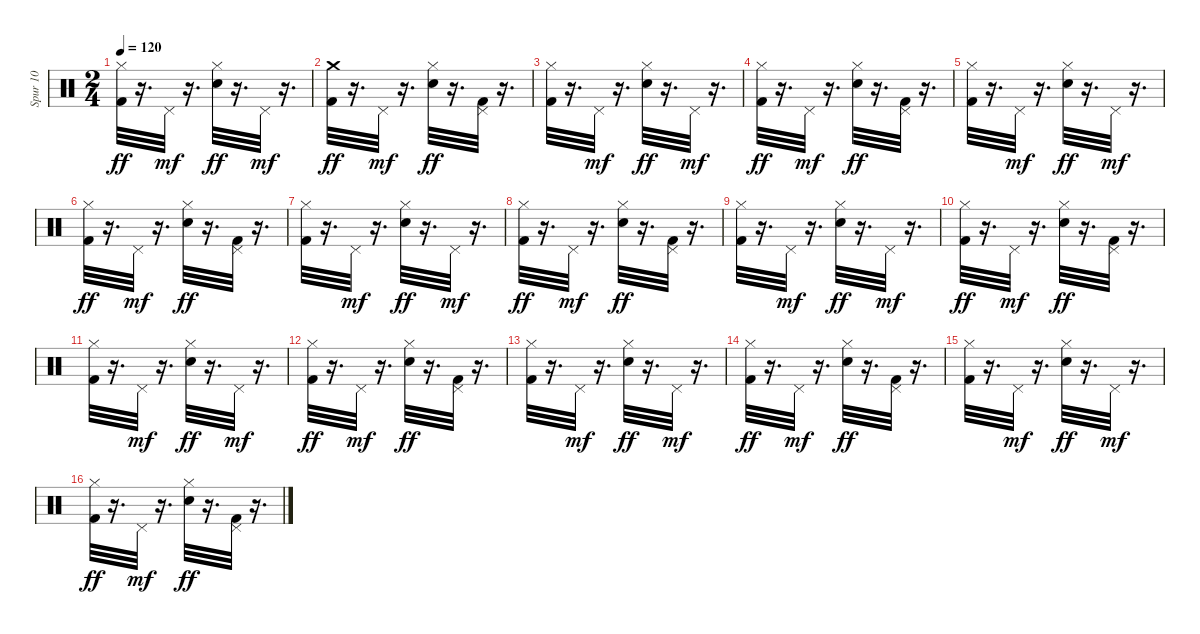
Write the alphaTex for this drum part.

\track ("Spur 10" "Spur 10") {instrument percussion}
\staff {score}
\articulation defaults
\ts (2 4)
\tempo 120
\clef neutral
\ks c
("Hi-Hat (closed)" "Kick (hit) 2").32{dy ff} r.16{d} "Pedal Hi-Hat (hit)".32{dy mf} r.16{d} ("Hi-Hat (closed)" "Snare (hit) 2").32{dy ff} r.16{d} "Pedal Hi-Hat (hit)".32{dy mf} r.16{d} |
("Crash medium (hit)" "Kick (hit) 2").32{dy ff} r.16{d} "Pedal Hi-Hat (hit)".32{dy mf} r.16{d} ("Hi-Hat (closed)" "Snare (hit) 2").32{dy ff} r.16{d} ("Pedal Hi-Hat (hit)" "Kick (hit) 2").32 r.16{d} |
("Hi-Hat (closed)" "Kick (hit) 2").32 r.16{d} "Pedal Hi-Hat (hit)".32{dy mf} r.16{d} ("Hi-Hat (closed)" "Snare (hit) 2").32{dy ff} r.16{d} "Pedal Hi-Hat (hit)".32{dy mf} r.16{d} |
("Hi-Hat (closed)" "Kick (hit) 2").32{dy ff} r.16{d} "Pedal Hi-Hat (hit)".32{dy mf} r.16{d} ("Hi-Hat (closed)" "Snare (hit) 2").32{dy ff} r.16{d} ("Pedal Hi-Hat (hit)" "Kick (hit) 2").32 r.16{d} |
("Hi-Hat (closed)" "Kick (hit) 2").32 r.16{d} "Pedal Hi-Hat (hit)".32{dy mf} r.16{d} ("Hi-Hat (closed)" "Snare (hit) 2").32{dy ff} r.16{d} "Pedal Hi-Hat (hit)".32{dy mf} r.16{d} |
("Hi-Hat (closed)" "Kick (hit) 2").32{dy ff} r.16{d} "Pedal Hi-Hat (hit)".32{dy mf} r.16{d} ("Hi-Hat (closed)" "Snare (hit) 2").32{dy ff} r.16{d} ("Pedal Hi-Hat (hit)" "Kick (hit) 2").32 r.16{d} |
("Hi-Hat (closed)" "Kick (hit) 2").32 r.16{d} "Pedal Hi-Hat (hit)".32{dy mf} r.16{d} ("Hi-Hat (closed)" "Snare (hit) 2").32{dy ff} r.16{d} "Pedal Hi-Hat (hit)".32{dy mf} r.16{d} |
("Hi-Hat (closed)" "Kick (hit) 2").32{dy ff} r.16{d} "Pedal Hi-Hat (hit)".32{dy mf} r.16{d} ("Hi-Hat (closed)" "Snare (hit) 2").32{dy ff} r.16{d} ("Pedal Hi-Hat (hit)" "Kick (hit) 2").32 r.16{d} |
("Hi-Hat (closed)" "Kick (hit) 2").32 r.16{d} "Pedal Hi-Hat (hit)".32{dy mf} r.16{d} ("Hi-Hat (closed)" "Snare (hit) 2").32{dy ff} r.16{d} "Pedal Hi-Hat (hit)".32{dy mf} r.16{d} |
("Hi-Hat (closed)" "Kick (hit) 2").32{dy ff} r.16{d} "Pedal Hi-Hat (hit)".32{dy mf} r.16{d} ("Hi-Hat (closed)" "Snare (hit) 2").32{dy ff} r.16{d} ("Pedal Hi-Hat (hit)" "Kick (hit) 2").32 r.16{d} |
("Hi-Hat (closed)" "Kick (hit) 2").32 r.16{d} "Pedal Hi-Hat (hit)".32{dy mf} r.16{d} ("Hi-Hat (closed)" "Snare (hit) 2").32{dy ff} r.16{d} "Pedal Hi-Hat (hit)".32{dy mf} r.16{d} |
("Hi-Hat (closed)" "Kick (hit) 2").32{dy ff} r.16{d} "Pedal Hi-Hat (hit)".32{dy mf} r.16{d} ("Hi-Hat (closed)" "Snare (hit) 2").32{dy ff} r.16{d} ("Pedal Hi-Hat (hit)" "Kick (hit) 2").32 r.16{d} |
("Hi-Hat (closed)" "Kick (hit) 2").32 r.16{d} "Pedal Hi-Hat (hit)".32{dy mf} r.16{d} ("Hi-Hat (closed)" "Snare (hit) 2").32{dy ff} r.16{d} "Pedal Hi-Hat (hit)".32{dy mf} r.16{d} |
("Hi-Hat (closed)" "Kick (hit) 2").32{dy ff} r.16{d} "Pedal Hi-Hat (hit)".32{dy mf} r.16{d} ("Hi-Hat (closed)" "Snare (hit) 2").32{dy ff} r.16{d} ("Pedal Hi-Hat (hit)" "Kick (hit) 2").32 r.16{d} |
("Hi-Hat (closed)" "Kick (hit) 2").32 r.16{d} "Pedal Hi-Hat (hit)".32{dy mf} r.16{d} ("Hi-Hat (closed)" "Snare (hit) 2").32{dy ff} r.16{d} "Pedal Hi-Hat (hit)".32{dy mf} r.16{d} |
("Hi-Hat (closed)" "Kick (hit) 2").32{dy ff} r.16{d} "Pedal Hi-Hat (hit)".32{dy mf} r.16{d} ("Hi-Hat (closed)" "Snare (hit) 2").32{dy ff} r.16{d} ("Pedal Hi-Hat (hit)" "Kick (hit) 2").32 r.16{d}
